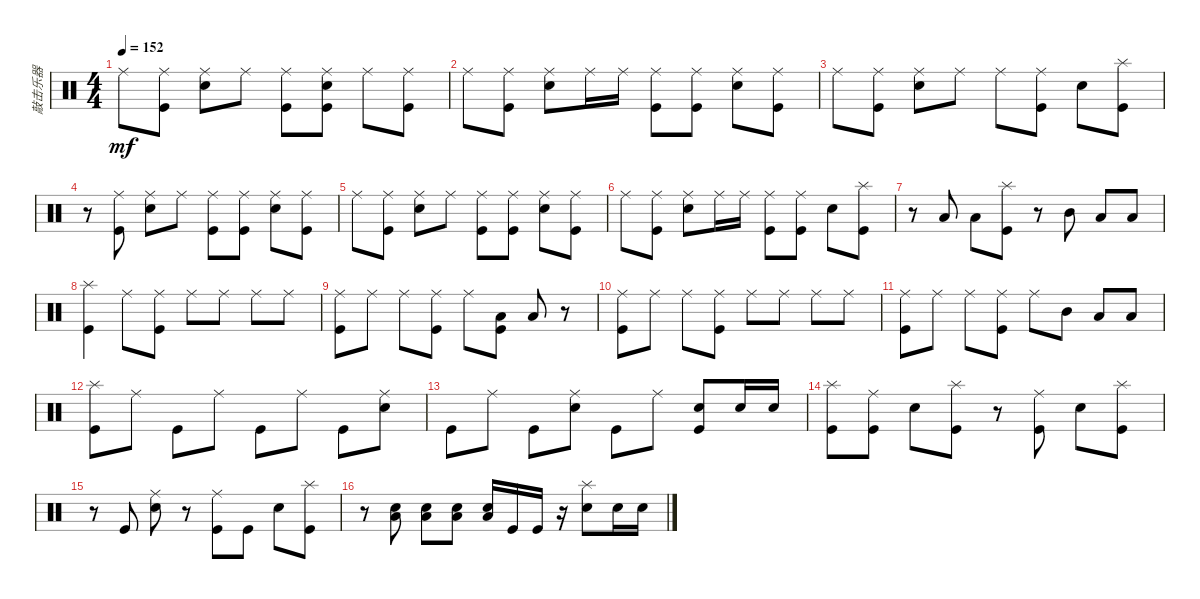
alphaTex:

\track ("敲击乐器" "敲击乐器") {instrument percussion}
\staff {score}
\articulation defaults
\ts (4 4)
\tempo 152
\clef neutral
\ks c "Ride (middle)".8{dy mf}
("Ride (middle)" "Kick (hit)").8 ("Ride (middle)" "Snare (hit) 2").8 "Ride (middle)".8 ("Ride (middle)" "Kick (hit)").8 ("Ride (middle)" "Snare (hit) 2" "Kick (hit)").8 "Ride (middle)".8 ("Ride (middle)" "Kick (hit)").8 |
"Ride (middle)".8 ("Ride (middle)" "Kick (hit)").8 ("Ride (middle)" "Snare (hit) 2").8 "Ride (middle)".16 "Ride (middle)".16 ("Ride (middle)" "Kick (hit)").8 ("Ride (middle)" "Kick (hit)").8 ("Ride (middle)" "Snare (hit) 2").8 ("Ride (middle)" "Kick (hit)").8 |
"Ride (middle)".8 ("Ride (middle)" "Kick (hit)").8 ("Ride (middle)" "Snare (hit) 2").8 "Ride (middle)".8 "Ride (middle)".8 ("Ride (middle)" "Kick (hit)").8 "Snare (hit) 2".8 ("Splash (hit)" "Kick (hit)").8 |
r.8 ("Ride (middle)" "Kick (hit)").8 ("Ride (middle)" "Snare (hit) 2").8 "Ride (middle)".8 ("Ride (middle)" "Kick (hit)").8 ("Ride (middle)" "Kick (hit)").8 ("Ride (middle)" "Snare (hit) 2").8 ("Ride (middle)" "Kick (hit)").8 |
"Ride (middle)".8 ("Ride (middle)" "Kick (hit)").8 ("Ride (middle)" "Snare (hit) 2").8 "Ride (middle)".8 ("Ride (middle)" "Kick (hit)").8 ("Ride (middle)" "Kick (hit)").8 ("Ride (middle)" "Snare (hit) 2").8 ("Ride (middle)" "Kick (hit)").8 |
"Ride (middle)".8 ("Ride (middle)" "Kick (hit)").8 ("Ride (middle)" "Snare (hit) 2").8 "Ride (middle)".16 "Ride (middle)".16 ("Ride (middle)" "Kick (hit)").8 ("Ride (middle)" "Kick (hit)").8 "Snare (hit) 2".8 ("Splash (hit)" "Kick (hit)").8 |
r.8 "Low Floor Tom (hit)".8 "Low Floor Tom (hit)".8 ("Splash (hit)" "Kick (hit)").8 r.8 "Mid Tom (hit)".8 "Low Tom (hit)".8 "Low Floor Tom (hit)".8 |
("Splash (hit)" "Kick (hit)").4 "Ride (middle)".8 ("Ride (middle)" "Kick (hit)").8 "Ride (middle)".8 "Ride (middle)".8 "Ride (middle)".8 "Ride (middle)".8 |
("Ride (middle)" "Kick (hit)").8 "Ride (middle)".8 "Ride (middle)".8 ("Ride (middle)" "Kick (hit)").8 "Ride (middle)".8 ("Low Tom (hit)" "Kick (hit)").8 "Low Floor Tom (hit)".8 r.8 |
("Ride (middle)" "Kick (hit)").8 "Ride (middle)".8 "Ride (middle)".8 ("Ride (middle)" "Kick (hit)").8 "Ride (middle)".8 "Ride (middle)".8 "Ride (middle)".8 "Ride (middle)".8 |
("Ride (middle)" "Kick (hit)").8 "Ride (middle)".8 "Ride (middle)".8 ("Ride (middle)" "Kick (hit)").8 "Ride (middle)".8 "Mid Tom (hit)".8 "Low Tom (hit)".8 "Low Floor Tom (hit)".8 |
("Splash (hit)" "Kick (hit)").8 "Ride (middle)".8 "Kick (hit)".8 "Ride (middle)".8 "Kick (hit)".8 "Ride (middle)".8 "Kick (hit)".8 ("Ride (middle)" "Snare (hit) 2").8 |
"Kick (hit)".8 "Ride (middle)".8 "Kick (hit)".8 ("Ride (middle)" "Snare (hit) 2").8 "Kick (hit)".8 "Ride (middle)".8 ("Snare (hit) 2" "Kick (hit)").8 "Snare (hit) 2".16 "Snare (hit) 2".16 |
("Splash (hit)" "Kick (hit)").8 ("Ride (middle)" "Kick (hit)").8 "Snare (hit) 2".8 ("Splash (hit)" "Kick (hit)").8 r.8 ("Ride (middle)" "Kick (hit)").8 "Snare (hit) 2".8 ("Splash (hit)" "Kick (hit)").8 |
r.8 "Kick (hit)".8 ("Ride (middle)" "Snare (hit) 2").8 r.8 ("Ride (middle)" "Kick (hit)").8 "Kick (hit)".8 "Snare (hit) 2".8 ("Splash (hit)" "Kick (hit)").8 |
r.8 ("Snare (hit) 2" "Low Floor Tom (hit)").8 ("Snare (hit) 2" "Low Floor Tom (hit)").8 ("Snare (hit) 2" "Low Floor Tom (hit)").8 ("Snare (hit) 2" "Low Floor Tom (hit)").16 "Kick (hit)".16 "Kick (hit)".16 r.16 ("Snare (hit) 2" "Splash (hit)").8 "Snare (hit) 2".16 "Snare (hit) 2".16
